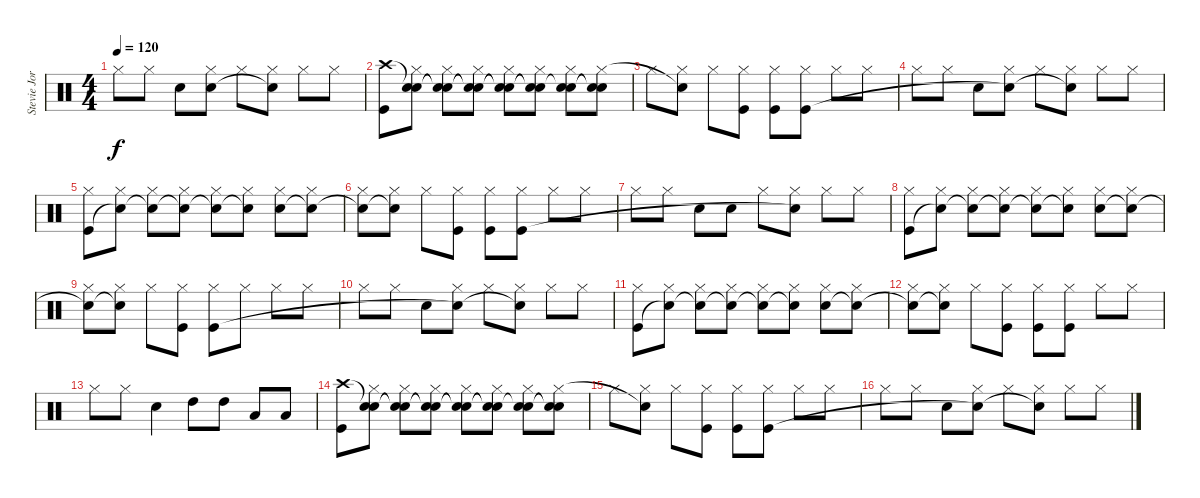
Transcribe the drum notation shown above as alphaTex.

\track ("Stevie Jordan" "Stevie Jor") {instrument percussion}
\staff {score}
\articulation defaults
\ts (4 4)
\tempo 120
\clef neutral
\ks c "Hi-Hat (closed)".8{dy f} "Hi-Hat (closed)".8 "Snare (hit) 2".8
("Hi-Hat (closed)" "Snare (hit)"{t}).8 "Hi-Hat (closed)".8 ("Hi-Hat (closed)" "Snare (hit)"{t}).8 "Hi-Hat (closed)".8 "Hi-Hat (closed)".8 |
("Crash high (hit)" "Kick (hit)").8 ("Snare (hit)"{t} "Hi-Hat (closed)" "Snare (hit)").8 ("Snare (hit)"{t} "Hi-Hat (closed)" "Snare (hit)"{t}).8 ("Snare (hit)"{t} "Hi-Hat (closed)" "Snare (hit)"{t}).8 ("Snare (hit)"{t} "Hi-Hat (closed)" "Snare (hit)"{t}).8 ("Snare (hit)"{t} "Hi-Hat (closed)" "Snare (hit)"{t}).8 ("Snare (hit)"{t} "Hi-Hat (closed)" "Snare (hit) 2").8 ("Snare (hit)"{t} "Hi-Hat (closed)" "Snare (hit)"{t}).8 |
"Hi-Hat (closed)".8 ("Hi-Hat (closed)" "Snare (hit)"{t}).8 "Hi-Hat (closed)".8 ("Hi-Hat (closed)" "Kick (hit)").8 ("Hi-Hat (closed)" "Kick (hit)").8 ("Hi-Hat (closed)" "Kick (hit)").8 "Hi-Hat (closed)".8 "Hi-Hat (closed)".8 |
"Hi-Hat (closed)".8 "Hi-Hat (closed)".8 "Snare (hit) 2".8 ("Hi-Hat (closed)" "Snare (hit)"{t}).8 "Hi-Hat (closed)".8 ("Hi-Hat (closed)" "Snare (hit)"{t}).8 "Hi-Hat (closed)".8 "Hi-Hat (closed)".8 |
("Hi-Hat (closed)" "Kick (hit)").8 ("Hi-Hat (closed)" "Snare (hit)"{t}).8 ("Hi-Hat (closed)" "Snare (hit)"{t}).8 ("Hi-Hat (closed)" "Snare (hit)"{t}).8 ("Hi-Hat (closed)" "Snare (hit)"{t}).8 ("Hi-Hat (closed)" "Snare (hit)"{t}).8 ("Hi-Hat (closed)" "Snare (hit) 2").8 ("Hi-Hat (closed)" "Snare (hit)"{t}).8 |
("Hi-Hat (closed)" "Snare (hit)"{t}).8 ("Hi-Hat (closed)" "Snare (hit)"{t}).8 "Hi-Hat (closed)".8 ("Hi-Hat (closed)" "Kick (hit)").8 ("Hi-Hat (closed)" "Kick (hit)").8 ("Hi-Hat (closed)" "Kick (hit)").8 "Hi-Hat (closed)".8 "Hi-Hat (closed)".8 |
"Hi-Hat (closed)".8 "Hi-Hat (closed)".8 "Snare (hit) 2".8 "Snare (hit) 2".8 "Hi-Hat (closed)".8 ("Hi-Hat (closed)" "Snare (hit)"{t}).8 "Hi-Hat (closed)".8 "Hi-Hat (closed)".8 |
("Hi-Hat (closed)" "Kick (hit)").8 ("Hi-Hat (closed)" "Snare (hit)"{t}).8 ("Hi-Hat (closed)" "Snare (hit)"{t}).8 ("Hi-Hat (closed)" "Snare (hit)"{t}).8 ("Hi-Hat (closed)" "Snare (hit)"{t}).8 ("Hi-Hat (closed)" "Snare (hit)"{t}).8 ("Hi-Hat (closed)" "Snare (hit) 2").8 ("Hi-Hat (closed)" "Snare (hit)"{t}).8 |
("Hi-Hat (closed)" "Snare (hit)"{t}).8 ("Hi-Hat (closed)" "Snare (hit)"{t}).8 "Hi-Hat (closed)".8 ("Hi-Hat (closed)" "Kick (hit)").8 ("Hi-Hat (closed)" "Kick (hit)").8 "Hi-Hat (closed)".8 "Hi-Hat (closed)".8 "Hi-Hat (closed)".8 |
"Hi-Hat (closed)".8 "Hi-Hat (closed)".8 "Snare (hit) 2".8 ("Hi-Hat (closed)" "Snare (hit)"{t}).8 "Hi-Hat (closed)".8 ("Hi-Hat (closed)" "Snare (hit)"{t}).8 "Hi-Hat (closed)".8 "Hi-Hat (closed)".8 |
("Hi-Hat (closed)" "Kick (hit)").8 ("Hi-Hat (closed)" "Snare (hit)"{t}).8 ("Hi-Hat (closed)" "Snare (hit)"{t}).8 ("Hi-Hat (closed)" "Snare (hit)"{t}).8 ("Hi-Hat (closed)" "Snare (hit)"{t}).8 ("Hi-Hat (closed)" "Snare (hit)"{t}).8 ("Hi-Hat (closed)" "Snare (hit) 2").8 ("Hi-Hat (closed)" "Snare (hit)"{t}).8 |
("Hi-Hat (closed)" "Snare (hit)"{t}).8 ("Hi-Hat (closed)" "Snare (hit)"{t}).8 "Hi-Hat (closed)".8 ("Hi-Hat (closed)" "Kick (hit)").8 ("Hi-Hat (closed)" "Kick (hit)").8 ("Hi-Hat (closed)" "Kick (hit)").8 "Hi-Hat (closed)".8 "Hi-Hat (closed)".8 |
"Hi-Hat (closed)".8 "Hi-Hat (closed)".8 "Snare (hit) 2".4 "High Tom (hit)".8 "High Tom (hit)".8 "Low Tom (hit)".8 "Low Tom (hit)".8 |
("Crash high (hit)" "Kick (hit)").8 ("Snare (hit)"{t} "Hi-Hat (closed)" "Snare (hit)").8 ("Snare (hit)"{t} "Hi-Hat (closed)" "Snare (hit)"{t}).8 ("Snare (hit)"{t} "Hi-Hat (closed)" "Snare (hit)"{t}).8 ("Snare (hit)"{t} "Hi-Hat (closed)" "Snare (hit)"{t}).8 ("Snare (hit)"{t} "Hi-Hat (closed)" "Snare (hit)"{t}).8 ("Snare (hit)"{t} "Hi-Hat (closed)" "Snare (hit) 2").8 ("Snare (hit)"{t} "Hi-Hat (closed)" "Snare (hit)"{t}).8 |
"Hi-Hat (closed)".8 ("Hi-Hat (closed)" "Snare (hit)"{t}).8 "Hi-Hat (closed)".8 ("Hi-Hat (closed)" "Kick (hit)").8 ("Hi-Hat (closed)" "Kick (hit)").8 ("Hi-Hat (closed)" "Kick (hit)").8 "Hi-Hat (closed)".8 "Hi-Hat (closed)".8 |
"Hi-Hat (closed)".8 "Hi-Hat (closed)".8 "Snare (hit) 2".8 ("Hi-Hat (closed)" "Snare (hit)"{t}).8 "Hi-Hat (closed)".8 ("Hi-Hat (closed)" "Snare (hit)"{t}).8 "Hi-Hat (closed)".8 "Hi-Hat (closed)".8
